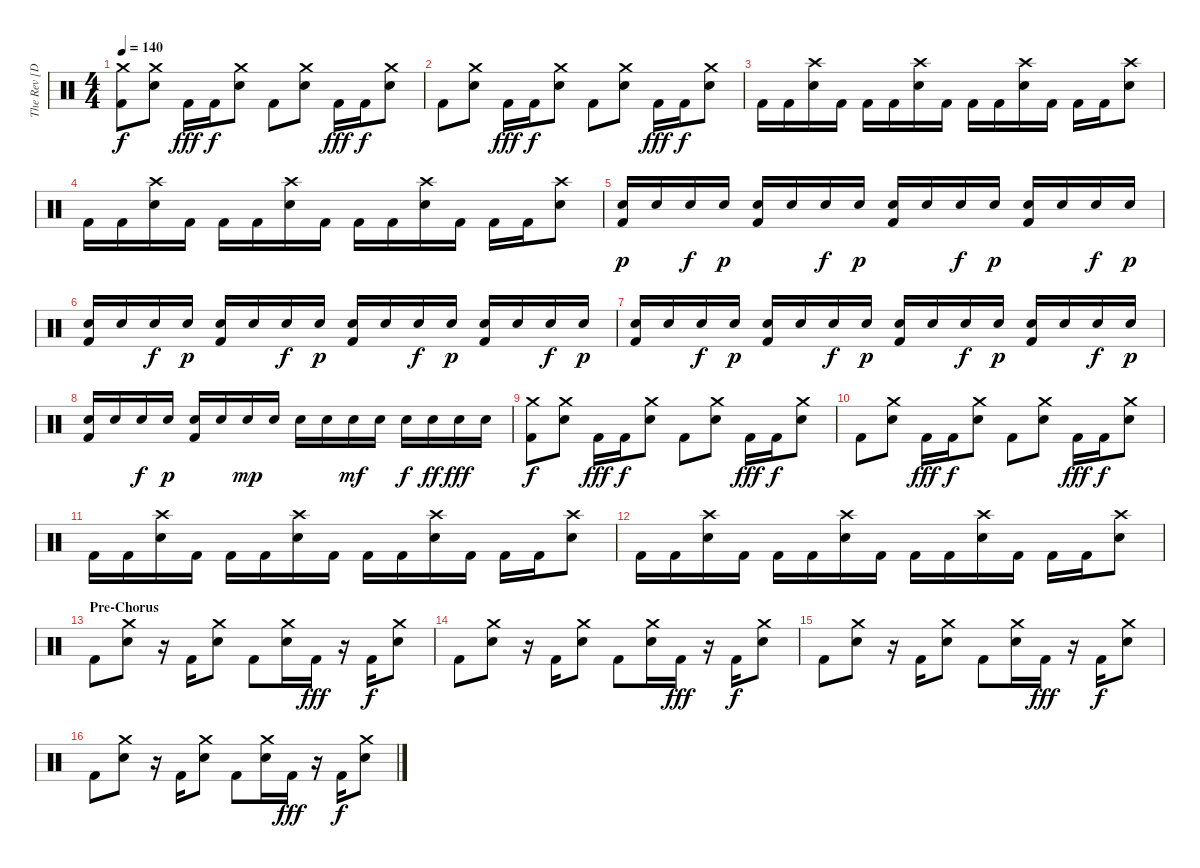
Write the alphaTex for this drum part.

\track ("The Rev [Drum]" "The Rev [D") {instrument percussion}
\staff {score}
\articulation defaults
\ts (4 4)
\tempo 140
\clef neutral
\ks c
("Crash medium (hit)" "Kick (hit) 2").8{dy f} ("Crash medium (hit)" "Snare (hit) 2").8 "Kick (hit) 2".16{dy fff} "Kick (hit) 2".16{dy f} ("Crash medium (hit)" "Snare (hit) 2").8 "Kick (hit) 2".8 ("Crash medium (hit)" "Snare (hit) 2").8 "Kick (hit) 2".16{dy fff} "Kick (hit) 2".16{dy f} ("Crash medium (hit)" "Snare (hit) 2").8 |
"Kick (hit) 2".8 ("Crash medium (hit)" "Snare (hit) 2").8 "Kick (hit) 2".16{dy fff} "Kick (hit) 2".16{dy f} ("Crash medium (hit)" "Snare (hit) 2").8 "Kick (hit) 2".8 ("Crash medium (hit)" "Snare (hit) 2").8 "Kick (hit) 2".16{dy fff} "Kick (hit) 2".16{dy f} ("Crash medium (hit)" "Snare (hit) 2").8 |
"Kick (hit) 2".16 "Kick (hit) 2".16 ("Crash high (hit)" "Snare (hit) 2").16 "Kick (hit) 2".16 "Kick (hit) 2".16 "Kick (hit) 2".16 ("Crash high (hit)" "Snare (hit) 2").16 "Kick (hit) 2".16 "Kick (hit) 2".16 "Kick (hit) 2".16 ("Crash high (hit)" "Snare (hit) 2").16 "Kick (hit) 2".16 "Kick (hit) 2".16 "Kick (hit) 2".16 ("Crash high (hit)" "Snare (hit) 2").8 |
"Kick (hit) 2".16 "Kick (hit) 2".16 ("Crash high (hit)" "Snare (hit) 2").16 "Kick (hit) 2".16 "Kick (hit) 2".16 "Kick (hit) 2".16 ("Crash high (hit)" "Snare (hit) 2").16 "Kick (hit) 2".16 "Kick (hit) 2".16 "Kick (hit) 2".16 ("Crash high (hit)" "Snare (hit) 2").16 "Kick (hit) 2".16 "Kick (hit) 2".16 "Kick (hit) 2".16 ("Crash high (hit)" "Snare (hit) 2").8 |
("Snare (hit) 2" "Kick (hit) 2").16{dy p} "Snare (hit) 2".16 "Snare (hit) 2".16{dy f} "Snare (hit) 2".16{dy p} ("Snare (hit) 2" "Kick (hit) 2").16 "Snare (hit) 2".16 "Snare (hit) 2".16{dy f} "Snare (hit) 2".16{dy p} ("Snare (hit) 2" "Kick (hit) 2").16 "Snare (hit) 2".16 "Snare (hit) 2".16{dy f} "Snare (hit) 2".16{dy p} ("Snare (hit) 2" "Kick (hit) 2").16 "Snare (hit) 2".16 "Snare (hit) 2".16{dy f} "Snare (hit) 2".16{dy p} |
("Snare (hit) 2" "Kick (hit) 2").16 "Snare (hit) 2".16 "Snare (hit) 2".16{dy f} "Snare (hit) 2".16{dy p} ("Snare (hit) 2" "Kick (hit) 2").16 "Snare (hit) 2".16 "Snare (hit) 2".16{dy f} "Snare (hit) 2".16{dy p} ("Snare (hit) 2" "Kick (hit) 2").16 "Snare (hit) 2".16 "Snare (hit) 2".16{dy f} "Snare (hit) 2".16{dy p} ("Snare (hit) 2" "Kick (hit) 2").16 "Snare (hit) 2".16 "Snare (hit) 2".16{dy f} "Snare (hit) 2".16{dy p} |
("Snare (hit) 2" "Kick (hit) 2").16 "Snare (hit) 2".16 "Snare (hit) 2".16{dy f} "Snare (hit) 2".16{dy p} ("Snare (hit) 2" "Kick (hit) 2").16 "Snare (hit) 2".16 "Snare (hit) 2".16{dy f} "Snare (hit) 2".16{dy p} ("Snare (hit) 2" "Kick (hit) 2").16 "Snare (hit) 2".16 "Snare (hit) 2".16{dy f} "Snare (hit) 2".16{dy p} ("Snare (hit) 2" "Kick (hit) 2").16 "Snare (hit) 2".16 "Snare (hit) 2".16{dy f} "Snare (hit) 2".16{dy p} |
("Snare (hit) 2" "Kick (hit) 2").16 "Snare (hit) 2".16 "Snare (hit) 2".16{dy f} "Snare (hit) 2".16{dy p} ("Snare (hit) 2" "Kick (hit) 2").16 "Snare (hit) 2".16 "Snare (hit) 2".16{dy mp} "Snare (hit) 2".16 "Snare (hit) 2".16 "Snare (hit) 2".16 "Snare (hit) 2".16{dy mf} "Snare (hit) 2".16 "Snare (hit) 2".16{dy f} "Snare (hit) 2".16{dy ff} "Snare (hit) 2".16{dy fff} "Snare (hit) 2".16 |
("Crash medium (hit)" "Kick (hit) 2").8{dy f} ("Crash medium (hit)" "Snare (hit) 2").8 "Kick (hit) 2".16{dy fff} "Kick (hit) 2".16{dy f} ("Crash medium (hit)" "Snare (hit) 2").8 "Kick (hit) 2".8 ("Crash medium (hit)" "Snare (hit) 2").8 "Kick (hit) 2".16{dy fff} "Kick (hit) 2".16{dy f} ("Crash medium (hit)" "Snare (hit) 2").8 |
"Kick (hit) 2".8 ("Crash medium (hit)" "Snare (hit) 2").8 "Kick (hit) 2".16{dy fff} "Kick (hit) 2".16{dy f} ("Crash medium (hit)" "Snare (hit) 2").8 "Kick (hit) 2".8 ("Crash medium (hit)" "Snare (hit) 2").8 "Kick (hit) 2".16{dy fff} "Kick (hit) 2".16{dy f} ("Crash medium (hit)" "Snare (hit) 2").8 |
"Kick (hit) 2".16 "Kick (hit) 2".16 ("Crash high (hit)" "Snare (hit) 2").16 "Kick (hit) 2".16 "Kick (hit) 2".16 "Kick (hit) 2".16 ("Crash high (hit)" "Snare (hit) 2").16 "Kick (hit) 2".16 "Kick (hit) 2".16 "Kick (hit) 2".16 ("Crash high (hit)" "Snare (hit) 2").16 "Kick (hit) 2".16 "Kick (hit) 2".16 "Kick (hit) 2".16 ("Crash high (hit)" "Snare (hit) 2").8 |
"Kick (hit) 2".16 "Kick (hit) 2".16 ("Crash high (hit)" "Snare (hit) 2").16 "Kick (hit) 2".16 "Kick (hit) 2".16 "Kick (hit) 2".16 ("Crash high (hit)" "Snare (hit) 2").16 "Kick (hit) 2".16 "Kick (hit) 2".16 "Kick (hit) 2".16 ("Crash high (hit)" "Snare (hit) 2").16 "Kick (hit) 2".16 "Kick (hit) 2".16 "Kick (hit) 2".16 ("Crash high (hit)" "Snare (hit) 2").8 |
\section ("" "Pre-Chorus")
"Kick (hit) 2".8 ("Crash medium (hit)" "Snare (hit) 2").8 r.16 "Kick (hit) 2".16 ("Crash medium (hit)" "Snare (hit) 2").8 "Kick (hit) 2".8 ("Crash medium (hit)" "Snare (hit) 2").16 "Kick (hit) 2".16{dy fff} r.16 "Kick (hit) 2".16{dy f} ("Crash medium (hit)" "Snare (hit) 2").8 |
"Kick (hit) 2".8 ("Crash medium (hit)" "Snare (hit) 2").8 r.16 "Kick (hit) 2".16 ("Crash medium (hit)" "Snare (hit) 2").8 "Kick (hit) 2".8 ("Crash medium (hit)" "Snare (hit) 2").16 "Kick (hit) 2".16{dy fff} r.16 "Kick (hit) 2".16{dy f} ("Crash medium (hit)" "Snare (hit) 2").8 |
"Kick (hit) 2".8 ("Crash medium (hit)" "Snare (hit) 2").8 r.16 "Kick (hit) 2".16 ("Crash medium (hit)" "Snare (hit) 2").8 "Kick (hit) 2".8 ("Crash medium (hit)" "Snare (hit) 2").16 "Kick (hit) 2".16{dy fff} r.16 "Kick (hit) 2".16{dy f} ("Crash medium (hit)" "Snare (hit) 2").8 |
"Kick (hit) 2".8 ("Crash medium (hit)" "Snare (hit) 2").8 r.16 "Kick (hit) 2".16 ("Crash medium (hit)" "Snare (hit) 2").8 "Kick (hit) 2".8 ("Crash medium (hit)" "Snare (hit) 2").16 "Kick (hit) 2".16{dy fff} r.16 "Kick (hit) 2".16{dy f} ("Crash medium (hit)" "Snare (hit) 2").8
